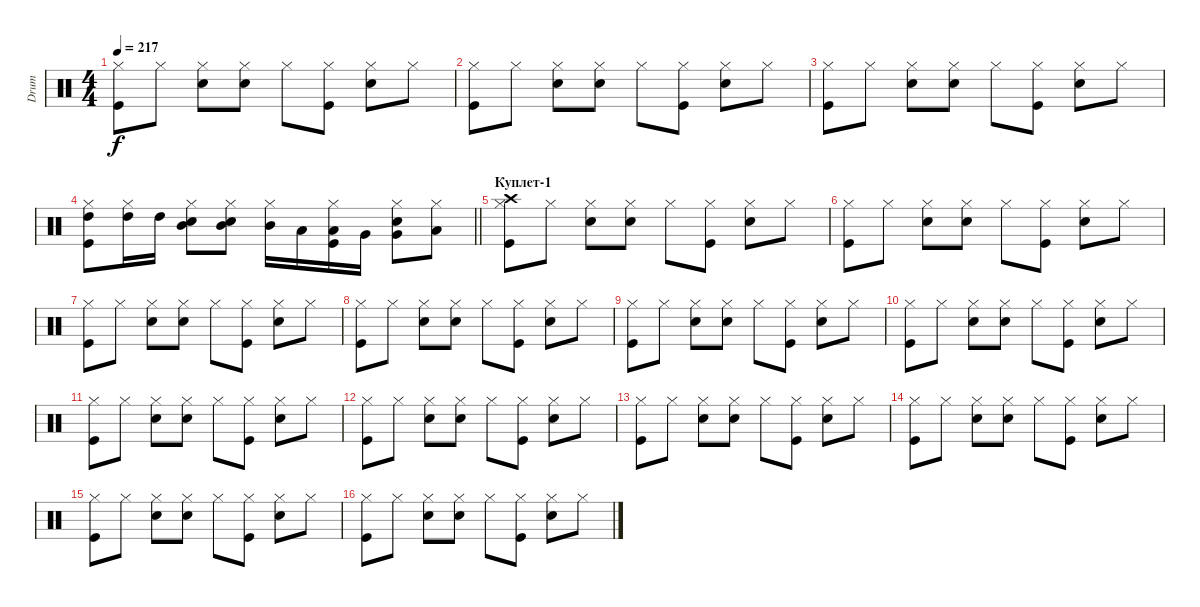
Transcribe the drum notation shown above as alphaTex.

\track ("Drum" "Drum") {instrument percussion}
\staff {score}
\articulation defaults
\ts (4 4)
\tempo 217
\clef neutral
\ks c
("Kick (hit)" "Hi-Hat (closed)").8{dy f} "Hi-Hat (closed)".8 ("Snare (hit) 2" "Hi-Hat (closed)").8 ("Snare (hit) 2" "Hi-Hat (closed)").8 "Hi-Hat (closed)".8 ("Kick (hit)" "Hi-Hat (closed)").8 ("Snare (hit) 2" "Hi-Hat (closed)").8 "Hi-Hat (closed)".8 |
("Kick (hit)" "Hi-Hat (closed)").8 "Hi-Hat (closed)".8 ("Snare (hit) 2" "Hi-Hat (closed)").8 ("Snare (hit) 2" "Hi-Hat (closed)").8 "Hi-Hat (closed)".8 ("Kick (hit)" "Hi-Hat (closed)").8 ("Snare (hit) 2" "Hi-Hat (closed)").8 "Hi-Hat (closed)".8 |
("Kick (hit)" "Hi-Hat (closed)").8 "Hi-Hat (closed)".8 ("Snare (hit) 2" "Hi-Hat (closed)").8 ("Snare (hit) 2" "Hi-Hat (closed)").8 "Hi-Hat (closed)".8 ("Kick (hit)" "Hi-Hat (closed)").8 ("Snare (hit) 2" "Hi-Hat (closed)").8 "Hi-Hat (closed)".8 |
\barLineRight lightlight
("Kick (hit)" "Hi-Hat (closed)" "High Tom (hit)").8 ("Hi-Hat (closed)" "High Tom (hit)").16 "High Tom (hit)".16 ("Snare (hit) 2" "Hi-Hat (closed)" "Mid Tom (hit)").8 ("Snare (hit) 2" "Hi-Hat (closed)" "Mid Tom (hit)").8 ("Hi-Hat (closed)" "Mid Tom (hit)").16 "Low Tom (hit)".16 ("Kick (hit)" "Hi-Hat (closed)" "Low Tom (hit)").16 "Very Low Tom (hit)".16 ("Snare (hit) 2" "Hi-Hat (closed)" "Very Low Tom (hit)").8 ("Hi-Hat (closed)" "Low Floor Tom (hit)").8 |
\section ("" "Куплет-1")
("Kick (hit)" "Hi-Hat (closed)" "Crash high (hit)").8 "Hi-Hat (closed)".8 ("Snare (hit) 2" "Hi-Hat (closed)").8 ("Snare (hit) 2" "Hi-Hat (closed)").8 "Hi-Hat (closed)".8 ("Kick (hit)" "Hi-Hat (closed)").8 ("Snare (hit) 2" "Hi-Hat (closed)").8 "Hi-Hat (closed)".8 |
("Kick (hit)" "Hi-Hat (closed)").8 "Hi-Hat (closed)".8 ("Snare (hit) 2" "Hi-Hat (closed)").8 ("Snare (hit) 2" "Hi-Hat (closed)").8 "Hi-Hat (closed)".8 ("Kick (hit)" "Hi-Hat (closed)").8 ("Snare (hit) 2" "Hi-Hat (closed)").8 "Hi-Hat (closed)".8 |
("Kick (hit)" "Hi-Hat (closed)").8 "Hi-Hat (closed)".8 ("Snare (hit) 2" "Hi-Hat (closed)").8 ("Snare (hit) 2" "Hi-Hat (closed)").8 "Hi-Hat (closed)".8 ("Kick (hit)" "Hi-Hat (closed)").8 ("Snare (hit) 2" "Hi-Hat (closed)").8 "Hi-Hat (closed)".8 |
("Kick (hit)" "Hi-Hat (closed)").8 "Hi-Hat (closed)".8 ("Snare (hit) 2" "Hi-Hat (closed)").8 ("Snare (hit) 2" "Hi-Hat (closed)").8 "Hi-Hat (closed)".8 ("Kick (hit)" "Hi-Hat (closed)").8 ("Snare (hit) 2" "Hi-Hat (closed)").8 "Hi-Hat (closed)".8 |
("Kick (hit)" "Hi-Hat (closed)").8 "Hi-Hat (closed)".8 ("Snare (hit) 2" "Hi-Hat (closed)").8 ("Snare (hit) 2" "Hi-Hat (closed)").8 "Hi-Hat (closed)".8 ("Kick (hit)" "Hi-Hat (closed)").8 ("Snare (hit) 2" "Hi-Hat (closed)").8 "Hi-Hat (closed)".8 |
("Kick (hit)" "Hi-Hat (closed)").8 "Hi-Hat (closed)".8 ("Snare (hit) 2" "Hi-Hat (closed)").8 ("Snare (hit) 2" "Hi-Hat (closed)").8 "Hi-Hat (closed)".8 ("Kick (hit)" "Hi-Hat (closed)").8 ("Snare (hit) 2" "Hi-Hat (closed)").8 "Hi-Hat (closed)".8 |
("Kick (hit)" "Hi-Hat (closed)").8 "Hi-Hat (closed)".8 ("Snare (hit) 2" "Hi-Hat (closed)").8 ("Snare (hit) 2" "Hi-Hat (closed)").8 "Hi-Hat (closed)".8 ("Kick (hit)" "Hi-Hat (closed)").8 ("Snare (hit) 2" "Hi-Hat (closed)").8 "Hi-Hat (closed)".8 |
("Kick (hit)" "Hi-Hat (closed)").8 "Hi-Hat (closed)".8 ("Snare (hit) 2" "Hi-Hat (closed)").8 ("Snare (hit) 2" "Hi-Hat (closed)").8 "Hi-Hat (closed)".8 ("Kick (hit)" "Hi-Hat (closed)").8 ("Snare (hit) 2" "Hi-Hat (closed)").8 "Hi-Hat (closed)".8 |
("Kick (hit)" "Hi-Hat (closed)").8 "Hi-Hat (closed)".8 ("Snare (hit) 2" "Hi-Hat (closed)").8 ("Snare (hit) 2" "Hi-Hat (closed)").8 "Hi-Hat (closed)".8 ("Kick (hit)" "Hi-Hat (closed)").8 ("Snare (hit) 2" "Hi-Hat (closed)").8 "Hi-Hat (closed)".8 |
("Kick (hit)" "Hi-Hat (closed)").8 "Hi-Hat (closed)".8 ("Snare (hit) 2" "Hi-Hat (closed)").8 ("Snare (hit) 2" "Hi-Hat (closed)").8 "Hi-Hat (closed)".8 ("Kick (hit)" "Hi-Hat (closed)").8 ("Snare (hit) 2" "Hi-Hat (closed)").8 "Hi-Hat (closed)".8 |
("Kick (hit)" "Hi-Hat (closed)").8 "Hi-Hat (closed)".8 ("Snare (hit) 2" "Hi-Hat (closed)").8 ("Snare (hit) 2" "Hi-Hat (closed)").8 "Hi-Hat (closed)".8 ("Kick (hit)" "Hi-Hat (closed)").8 ("Snare (hit) 2" "Hi-Hat (closed)").8 "Hi-Hat (closed)".8 |
("Kick (hit)" "Hi-Hat (closed)").8 "Hi-Hat (closed)".8 ("Snare (hit) 2" "Hi-Hat (closed)").8 ("Snare (hit) 2" "Hi-Hat (closed)").8 "Hi-Hat (closed)".8 ("Kick (hit)" "Hi-Hat (closed)").8 ("Snare (hit) 2" "Hi-Hat (closed)").8 "Hi-Hat (closed)".8
